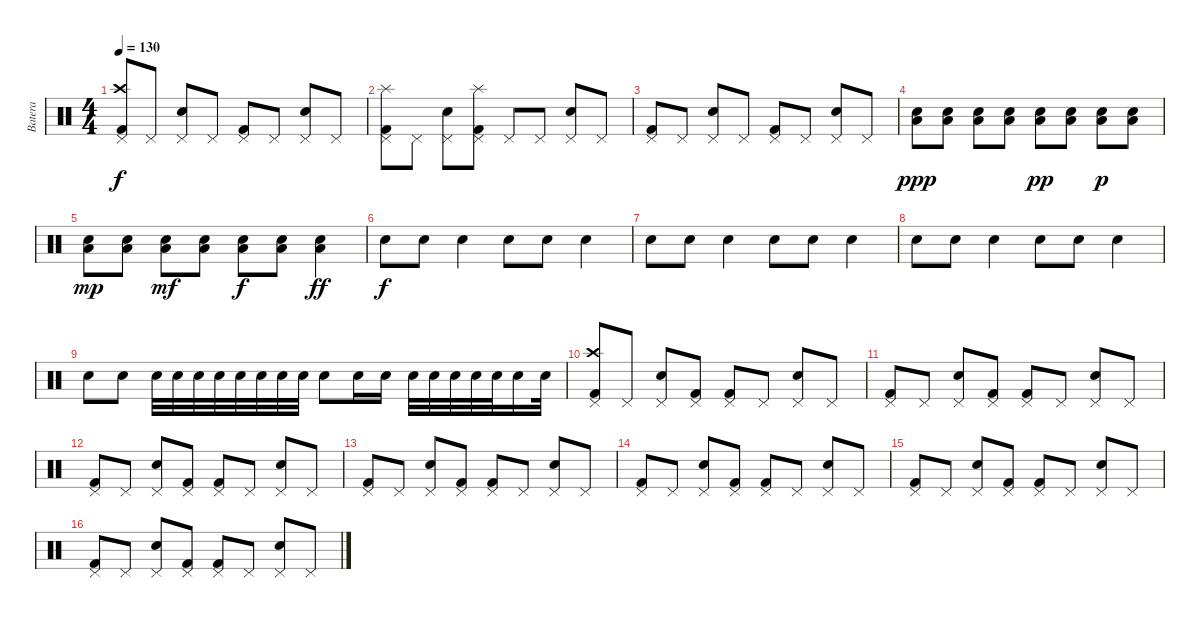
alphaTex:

\track ("Batera" "Batera") {instrument percussion}
\staff {score}
\articulation defaults
\ts (4 4)
\tempo 130
\clef neutral
\ks c
("Pedal Hi-Hat (hit)" "Crash high (hit)" "Kick (hit) 2").8{dy f} "Pedal Hi-Hat (hit)".8 ("Pedal Hi-Hat (hit)" "Snare (hit) 2").8 "Pedal Hi-Hat (hit)".8 ("Pedal Hi-Hat (hit)" "Kick (hit) 2").8 "Pedal Hi-Hat (hit)".8 ("Pedal Hi-Hat (hit)" "Snare (hit) 2").8 "Pedal Hi-Hat (hit)".8 |
("Pedal Hi-Hat (hit)" "Splash (hit)" "Kick (hit) 2").8 "Pedal Hi-Hat (hit)".8 ("Pedal Hi-Hat (hit)" "Snare (hit) 2").8 ("Pedal Hi-Hat (hit)" "Splash (hit)" "Kick (hit) 2").8 "Pedal Hi-Hat (hit)".8 "Pedal Hi-Hat (hit)".8 ("Pedal Hi-Hat (hit)" "Snare (hit) 2").8 "Pedal Hi-Hat (hit)".8 |
("Pedal Hi-Hat (hit)" "Kick (hit) 2").8 "Pedal Hi-Hat (hit)".8 ("Pedal Hi-Hat (hit)" "Snare (hit) 2").8 "Pedal Hi-Hat (hit)".8 ("Pedal Hi-Hat (hit)" "Kick (hit) 2").8 "Pedal Hi-Hat (hit)".8 ("Pedal Hi-Hat (hit)" "Snare (hit) 2").8 "Pedal Hi-Hat (hit)".8 |
("Low Floor Tom (hit)" "Snare (hit) 2").8{dy ppp} ("Low Floor Tom (hit)" "Snare (hit) 2").8 ("Low Floor Tom (hit)" "Snare (hit) 2").8 ("Low Floor Tom (hit)" "Snare (hit) 2").8 ("Low Floor Tom (hit)" "Snare (hit) 2").8{dy pp} ("Low Floor Tom (hit)" "Snare (hit) 2").8 ("Low Floor Tom (hit)" "Snare (hit) 2").8{dy p} ("Low Floor Tom (hit)" "Snare (hit) 2").8 |
("Low Floor Tom (hit)" "Snare (hit) 2").8{dy mp} ("Low Floor Tom (hit)" "Snare (hit) 2").8 ("Low Floor Tom (hit)" "Snare (hit) 2").8{dy mf} ("Low Floor Tom (hit)" "Snare (hit) 2").8 ("Low Floor Tom (hit)" "Snare (hit) 2").8{dy f} ("Low Floor Tom (hit)" "Snare (hit) 2").8 ("Low Floor Tom (hit)" "Snare (hit) 2").4{dy ff} |
"Snare (hit) 2".8{dy f} "Snare (hit) 2".8 "Snare (hit) 2".4 "Snare (hit) 2".8 "Snare (hit) 2".8 "Snare (hit) 2".4 |
"Snare (hit) 2".8 "Snare (hit) 2".8 "Snare (hit) 2".4 "Snare (hit) 2".8 "Snare (hit) 2".8 "Snare (hit) 2".4 |
"Snare (hit) 2".8 "Snare (hit) 2".8 "Snare (hit) 2".4 "Snare (hit) 2".8 "Snare (hit) 2".8 "Snare (hit) 2".4 |
"Snare (hit) 2".8 "Snare (hit) 2".8 "Snare (hit) 2".32 "Snare (hit) 2".32 "Snare (hit) 2".32 "Snare (hit) 2".32 "Snare (hit) 2".32 "Snare (hit) 2".32 "Snare (hit) 2".32 "Snare (hit) 2".32 "Snare (hit) 2".8 "Snare (hit) 2".16 "Snare (hit) 2".16 "Snare (hit) 2".32 "Snare (hit) 2".32 "Snare (hit) 2".32 "Snare (hit) 2".32 "Snare (hit) 2".32 "Snare (hit) 2".16 "Snare (hit) 2".32 |
("Pedal Hi-Hat (hit)" "Crash high (hit)" "Kick (hit) 2").8 "Pedal Hi-Hat (hit)".8 ("Pedal Hi-Hat (hit)" "Snare (hit) 2").8 ("Pedal Hi-Hat (hit)" "Kick (hit) 2").8 ("Pedal Hi-Hat (hit)" "Kick (hit) 2").8 "Pedal Hi-Hat (hit)".8 ("Pedal Hi-Hat (hit)" "Snare (hit) 2").8 "Pedal Hi-Hat (hit)".8 |
("Pedal Hi-Hat (hit)" "Kick (hit) 2").8 "Pedal Hi-Hat (hit)".8 ("Pedal Hi-Hat (hit)" "Snare (hit) 2").8 ("Pedal Hi-Hat (hit)" "Kick (hit) 2").8 ("Pedal Hi-Hat (hit)" "Kick (hit) 2").8 "Pedal Hi-Hat (hit)".8 ("Pedal Hi-Hat (hit)" "Snare (hit) 2").8 "Pedal Hi-Hat (hit)".8 |
("Pedal Hi-Hat (hit)" "Kick (hit) 2").8 "Pedal Hi-Hat (hit)".8 ("Pedal Hi-Hat (hit)" "Snare (hit) 2").8 ("Pedal Hi-Hat (hit)" "Kick (hit) 2").8 ("Pedal Hi-Hat (hit)" "Kick (hit) 2").8 "Pedal Hi-Hat (hit)".8 ("Pedal Hi-Hat (hit)" "Snare (hit) 2").8 "Pedal Hi-Hat (hit)".8 |
("Pedal Hi-Hat (hit)" "Kick (hit) 2").8 "Pedal Hi-Hat (hit)".8 ("Pedal Hi-Hat (hit)" "Snare (hit) 2").8 ("Pedal Hi-Hat (hit)" "Kick (hit) 2").8 ("Pedal Hi-Hat (hit)" "Kick (hit) 2").8 "Pedal Hi-Hat (hit)".8 ("Pedal Hi-Hat (hit)" "Snare (hit) 2").8 "Pedal Hi-Hat (hit)".8 |
("Pedal Hi-Hat (hit)" "Kick (hit) 2").8 "Pedal Hi-Hat (hit)".8 ("Pedal Hi-Hat (hit)" "Snare (hit) 2").8 ("Pedal Hi-Hat (hit)" "Kick (hit) 2").8 ("Pedal Hi-Hat (hit)" "Kick (hit) 2").8 "Pedal Hi-Hat (hit)".8 ("Pedal Hi-Hat (hit)" "Snare (hit) 2").8 "Pedal Hi-Hat (hit)".8 |
("Pedal Hi-Hat (hit)" "Kick (hit) 2").8 "Pedal Hi-Hat (hit)".8 ("Pedal Hi-Hat (hit)" "Snare (hit) 2").8 ("Pedal Hi-Hat (hit)" "Kick (hit) 2").8 ("Pedal Hi-Hat (hit)" "Kick (hit) 2").8 "Pedal Hi-Hat (hit)".8 ("Pedal Hi-Hat (hit)" "Snare (hit) 2").8 "Pedal Hi-Hat (hit)".8 |
("Pedal Hi-Hat (hit)" "Kick (hit) 2").8 "Pedal Hi-Hat (hit)".8 ("Pedal Hi-Hat (hit)" "Snare (hit) 2").8 ("Pedal Hi-Hat (hit)" "Kick (hit) 2").8 ("Pedal Hi-Hat (hit)" "Kick (hit) 2").8 "Pedal Hi-Hat (hit)".8 ("Pedal Hi-Hat (hit)" "Snare (hit) 2").8 "Pedal Hi-Hat (hit)".8
